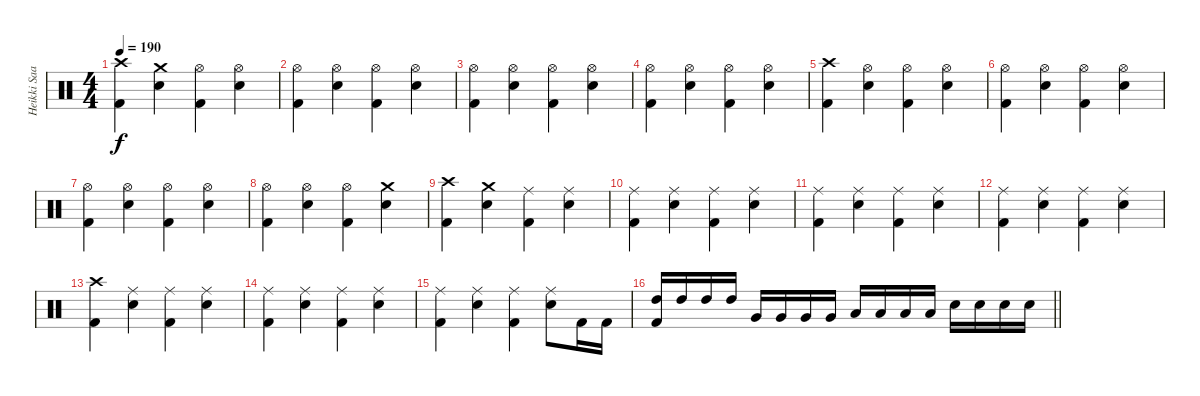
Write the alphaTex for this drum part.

\track ("Heikki Saari" "Heikki Saa") {instrument percussion}
\staff {score}
\articulation defaults
\ts (4 4)
\tempo 190
\clef neutral
\ks c
("Crash high (hit)" "Kick (hit) 2").4{dy f} ("Crash medium (hit)" "Snare (hit) 2").4 ("Hi-Hat (open)" "Kick (hit) 2").4 ("Hi-Hat (open)" "Snare (hit) 2").4 |
("Hi-Hat (open)" "Kick (hit) 2").4 ("Hi-Hat (open)" "Snare (hit) 2").4 ("Hi-Hat (open)" "Kick (hit) 2").4 ("Hi-Hat (open)" "Snare (hit) 2").4 |
("Hi-Hat (open)" "Kick (hit) 2").4 ("Hi-Hat (open)" "Snare (hit) 2").4 ("Hi-Hat (open)" "Kick (hit) 2").4 ("Hi-Hat (open)" "Snare (hit) 2").4 |
("Hi-Hat (open)" "Kick (hit) 2").4 ("Hi-Hat (open)" "Snare (hit) 2").4 ("Hi-Hat (open)" "Kick (hit) 2").4 ("Hi-Hat (open)" "Snare (hit) 2").4 |
("Crash high (hit)" "Kick (hit) 2").4 ("Hi-Hat (open)" "Snare (hit) 2").4 ("Hi-Hat (open)" "Kick (hit) 2").4 ("Hi-Hat (open)" "Snare (hit) 2").4 |
("Hi-Hat (open)" "Kick (hit) 2").4 ("Hi-Hat (open)" "Snare (hit) 2").4 ("Hi-Hat (open)" "Kick (hit) 2").4 ("Hi-Hat (open)" "Snare (hit) 2").4 |
("Hi-Hat (open)" "Kick (hit) 2").4 ("Hi-Hat (open)" "Snare (hit) 2").4 ("Hi-Hat (open)" "Kick (hit) 2").4 ("Hi-Hat (open)" "Snare (hit) 2").4 |
("Hi-Hat (open)" "Kick (hit) 2").4 ("Hi-Hat (open)" "Snare (hit) 2").4 ("Hi-Hat (open)" "Kick (hit) 2").4 ("Crash medium (hit)" "Snare (hit) 2").4 |
("Crash high (hit)" "Kick (hit) 2").4 ("Crash medium (hit)" "Snare (hit) 2").4 ("Ride (middle)" "Kick (hit) 2").4 ("Ride (middle)" "Snare (hit) 2").4 |
("Ride (middle)" "Kick (hit) 2").4 ("Ride (middle)" "Snare (hit) 2").4 ("Ride (middle)" "Kick (hit) 2").4 ("Ride (middle)" "Snare (hit) 2").4 |
("Ride (middle)" "Kick (hit) 2").4 ("Ride (middle)" "Snare (hit) 2").4 ("Ride (middle)" "Kick (hit) 2").4 ("Ride (middle)" "Snare (hit) 2").4 |
("Ride (middle)" "Kick (hit) 2").4 ("Ride (middle)" "Snare (hit) 2").4 ("Ride (middle)" "Kick (hit) 2").4 ("Ride (middle)" "Snare (hit) 2").4 |
("Crash high (hit)" "Kick (hit) 2").4 ("Ride (middle)" "Snare (hit) 2").4 ("Ride (middle)" "Kick (hit) 2").4 ("Ride (middle)" "Snare (hit) 2").4 |
("Ride (middle)" "Kick (hit) 2").4 ("Ride (middle)" "Snare (hit) 2").4 ("Ride (middle)" "Kick (hit) 2").4 ("Ride (middle)" "Snare (hit) 2").4 |
("Ride (middle)" "Kick (hit) 2").4 ("Ride (middle)" "Snare (hit) 2").4 ("Ride (middle)" "Kick (hit) 2").4 ("Ride (middle)" "Snare (hit) 2").8 "Kick (hit) 2".16 "Kick (hit) 2".16 |
\barLineRight lightlight
("High Tom (hit)" "Kick (hit) 2").16 "High Tom (hit)".16 "High Tom (hit)".16 "High Tom (hit)".16 "Very Low Tom (hit)".16 "Very Low Tom (hit)".16 "Very Low Tom (hit)".16 "Very Low Tom (hit)".16 "Low Floor Tom (hit)".16 "Low Floor Tom (hit)".16 "Low Floor Tom (hit)".16 "Low Floor Tom (hit)".16 "Snare (hit) 2".16 "Snare (hit) 2".16 "Snare (hit) 2".16 "Snare (hit) 2".16
